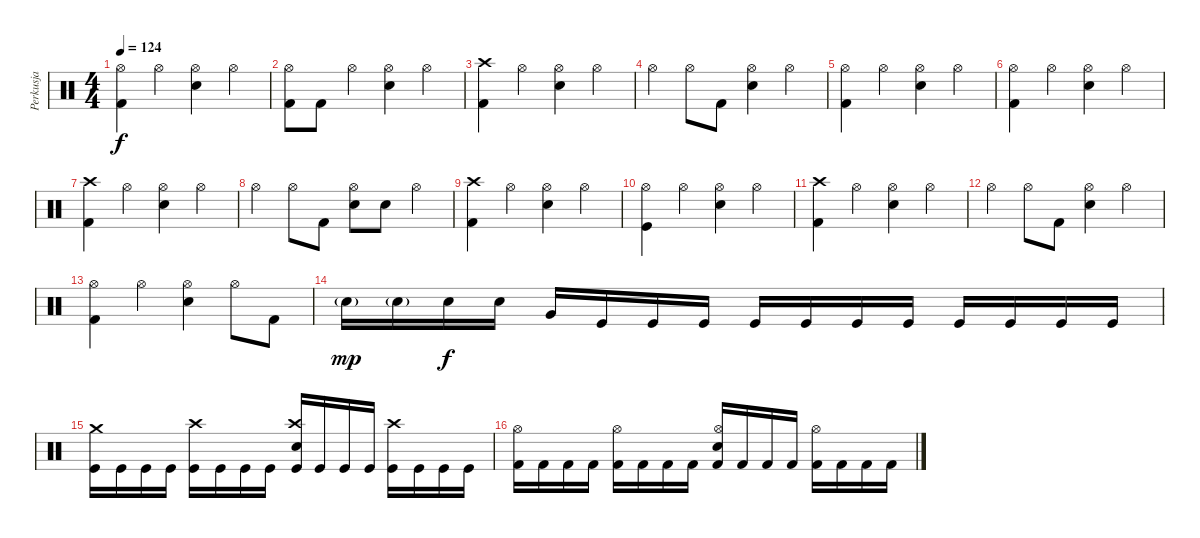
\track ("Perkusja" "Perkusja") {instrument percussion}
\staff {score}
\articulation defaults
\ts (4 4)
\tempo 124
\clef neutral
\ks c
("Kick (hit) 2" "Hi-Hat (open)").4{dy f} "Hi-Hat (open)".4 ("Snare (hit) 2" "Hi-Hat (open)").4 "Hi-Hat (open)".4 |
("Kick (hit) 2" "Hi-Hat (open)").8 "Kick (hit) 2".8 "Hi-Hat (open)".4 ("Snare (hit) 2" "Hi-Hat (open)").4 "Hi-Hat (open)".4 |
("Kick (hit) 2" "Crash high (hit)").4 "Hi-Hat (open)".4 ("Snare (hit) 2" "Hi-Hat (open)").4 "Hi-Hat (open)".4 |
"Hi-Hat (open)".4 "Hi-Hat (open)".8 "Kick (hit) 2".8 ("Snare (hit) 2" "Hi-Hat (open)").4 "Hi-Hat (open)".4 |
("Kick (hit) 2" "Hi-Hat (open)").4 "Hi-Hat (open)".4 ("Snare (hit) 2" "Hi-Hat (open)").4 "Hi-Hat (open)".4 |
("Kick (hit) 2" "Hi-Hat (open)").4 "Hi-Hat (open)".4 ("Snare (hit) 2" "Hi-Hat (open)").4 "Hi-Hat (open)".4 |
("Kick (hit) 2" "Crash high (hit)").4 "Hi-Hat (open)".4 ("Snare (hit) 2" "Hi-Hat (open)").4 "Hi-Hat (open)".4 |
"Hi-Hat (open)".4 "Hi-Hat (open)".8 "Kick (hit) 2".8 ("Snare (hit) 2" "Hi-Hat (open)").8 "Snare (hit) 2".8 "Hi-Hat (open)".4 |
("Kick (hit) 2" "Crash high (hit)").4 "Hi-Hat (open)".4 ("Snare (hit) 2" "Hi-Hat (open)").4 "Hi-Hat (open)".4 |
("Kick (hit)" "Hi-Hat (open)").4 "Hi-Hat (open)".4 ("Snare (hit) 2" "Hi-Hat (open)").4 "Hi-Hat (open)".4 |
("Kick (hit) 2" "Crash high (hit)").4 "Hi-Hat (open)".4 ("Snare (hit) 2" "Hi-Hat (open)").4 "Hi-Hat (open)".4 |
"Hi-Hat (open)".4 "Hi-Hat (open)".8 "Kick (hit) 2".8 ("Snare (hit) 2" "Hi-Hat (open)").4 "Hi-Hat (open)".4 |
("Kick (hit) 2" "Hi-Hat (open)").4 "Hi-Hat (open)".4 ("Snare (hit) 2" "Hi-Hat (open)").4 "Hi-Hat (open)".8 "Kick (hit) 2".8 |
"Snare (hit) 2"{g}.16{dy mp} "Snare (hit) 2"{g}.16 "Snare (hit) 2".16{dy f} "Snare (hit) 2".16 "Very Low Tom (hit)".16 "Kick (hit)".16 "Kick (hit)".16 "Kick (hit)".16 "Kick (hit)".16 "Kick (hit)".16 "Kick (hit)".16 "Kick (hit)".16 "Kick (hit)".16 "Kick (hit)".16 "Kick (hit)".16 "Kick (hit)".16 |
("Kick (hit)" "Crash medium (hit)").16 "Kick (hit)".16 "Kick (hit)".16 "Kick (hit)".16 ("Kick (hit)" "Crash high (hit)").16 "Kick (hit)".16 "Kick (hit)".16 "Kick (hit)".16 ("Kick (hit)" "Snare (hit) 2" "Crash high (hit)").16 "Kick (hit)".16 "Kick (hit)".16 "Kick (hit)".16 ("Kick (hit)" "Crash high (hit)").16 "Kick (hit)".16 "Kick (hit)".16 "Kick (hit)".16 |
("Kick (hit) 2" "Hi-Hat (open)").16 "Kick (hit) 2".16 "Kick (hit) 2".16 "Kick (hit) 2".16 ("Kick (hit) 2" "Hi-Hat (open)").16 "Kick (hit) 2".16 "Kick (hit) 2".16 "Kick (hit) 2".16 ("Kick (hit) 2" "Snare (hit) 2" "Hi-Hat (open)").16 "Kick (hit) 2".16 "Kick (hit) 2".16 "Kick (hit) 2".16 ("Kick (hit) 2" "Hi-Hat (open)").16 "Kick (hit) 2".16 "Kick (hit) 2".16 "Kick (hit) 2".16
